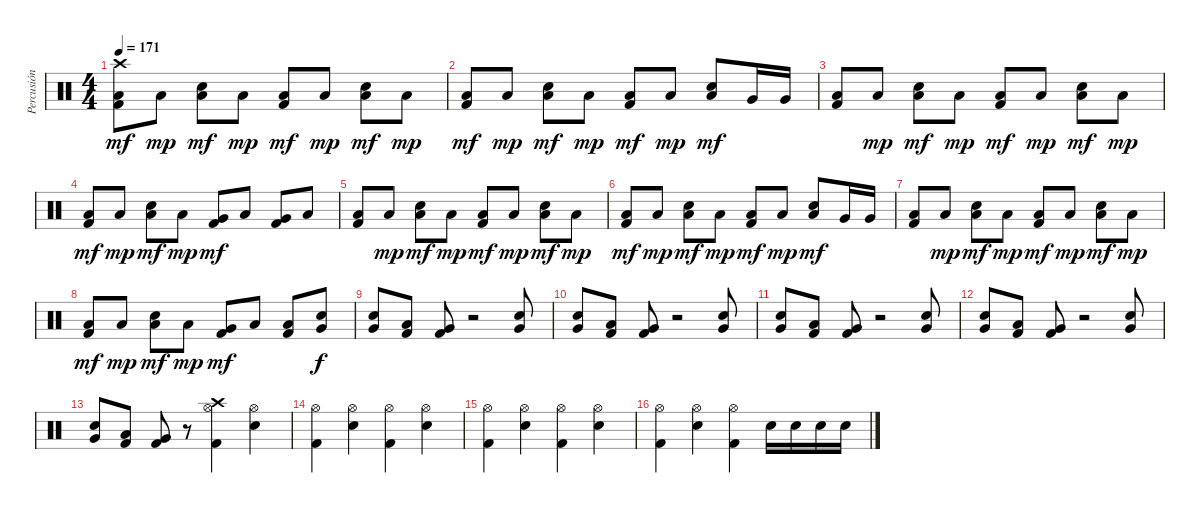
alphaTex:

\track ("Percusión" "Percusión") {instrument percussion}
\staff {score}
\articulation defaults
\ts (4 4)
\tempo 171
\clef neutral
\ks c
("Crash high (hit)" "Low Floor Tom (hit)" "Kick (hit) 2").8{dy mf} "Low Floor Tom (hit)".8{dy mp} ("Low Floor Tom (hit)" "Electric Snare (hit)").8{dy mf} "Low Floor Tom (hit)".8{dy mp} ("Low Floor Tom (hit)" "Kick (hit) 2").8{dy mf} "Low Floor Tom (hit)".8{dy mp} ("Low Floor Tom (hit)" "Electric Snare (hit)").8{dy mf} "Low Floor Tom (hit)".8{dy mp} |
("Low Floor Tom (hit)" "Kick (hit) 2").8{dy mf} "Low Floor Tom (hit)".8{dy mp} ("Low Floor Tom (hit)" "Electric Snare (hit)").8{dy mf} "Low Floor Tom (hit)".8{dy mp} ("Low Floor Tom (hit)" "Kick (hit) 2").8{dy mf} "Low Floor Tom (hit)".8{dy mp} ("Low Floor Tom (hit)" "Electric Snare (hit)").8{dy mf} "Very Low Tom (hit)".16 "Very Low Tom (hit)".16 |
("Low Floor Tom (hit)" "Kick (hit) 2").8 "Low Floor Tom (hit)".8{dy mp} ("Low Floor Tom (hit)" "Electric Snare (hit)").8{dy mf} "Low Floor Tom (hit)".8{dy mp} ("Low Floor Tom (hit)" "Kick (hit) 2").8{dy mf} "Low Floor Tom (hit)".8{dy mp} ("Low Floor Tom (hit)" "Electric Snare (hit)").8{dy mf} "Low Floor Tom (hit)".8{dy mp} |
("Low Floor Tom (hit)" "Kick (hit) 2").8{dy mf} "Low Floor Tom (hit)".8{dy mp} ("Low Floor Tom (hit)" "Electric Snare (hit)").8{dy mf} "Low Floor Tom (hit)".8{dy mp} ("Very Low Tom (hit)" "Kick (hit) 2").8{dy mf} "Low Tom (hit)".8 ("Very Low Tom (hit)" "Kick (hit) 2").8 "Low Tom (hit)".8 |
("Low Floor Tom (hit)" "Kick (hit) 2").8 "Low Floor Tom (hit)".8{dy mp} ("Low Floor Tom (hit)" "Electric Snare (hit)").8{dy mf} "Low Floor Tom (hit)".8{dy mp} ("Low Floor Tom (hit)" "Kick (hit) 2").8{dy mf} "Low Floor Tom (hit)".8{dy mp} ("Low Floor Tom (hit)" "Electric Snare (hit)").8{dy mf} "Low Floor Tom (hit)".8{dy mp} |
("Low Floor Tom (hit)" "Kick (hit) 2").8{dy mf} "Low Floor Tom (hit)".8{dy mp} ("Low Floor Tom (hit)" "Electric Snare (hit)").8{dy mf} "Low Floor Tom (hit)".8{dy mp} ("Low Floor Tom (hit)" "Kick (hit) 2").8{dy mf} "Low Floor Tom (hit)".8{dy mp} ("Low Floor Tom (hit)" "Electric Snare (hit)").8{dy mf} "Very Low Tom (hit)".16 "Very Low Tom (hit)".16 |
("Low Floor Tom (hit)" "Kick (hit) 2").8 "Low Floor Tom (hit)".8{dy mp} ("Low Floor Tom (hit)" "Electric Snare (hit)").8{dy mf} "Low Floor Tom (hit)".8{dy mp} ("Low Floor Tom (hit)" "Kick (hit) 2").8{dy mf} "Low Floor Tom (hit)".8{dy mp} ("Low Floor Tom (hit)" "Electric Snare (hit)").8{dy mf} "Low Floor Tom (hit)".8{dy mp} |
("Low Floor Tom (hit)" "Kick (hit) 2").8{dy mf} "Low Floor Tom (hit)".8{dy mp} ("Low Floor Tom (hit)" "Electric Snare (hit)").8{dy mf} "Low Floor Tom (hit)".8{dy mp} ("Very Low Tom (hit)" "Kick (hit) 2").8{dy mf} "Low Tom (hit)".8 ("Low Floor Tom (hit)" "Kick (hit) 2").8 ("Very Low Tom (hit)" "Electric Snare (hit)").8{dy f} |
("Very Low Tom (hit)" "Electric Snare (hit)").8 ("Low Tom (hit)" "Kick (hit) 2").8 ("Very Low Tom (hit)" "Kick (hit) 2").8 r.2 ("Very Low Tom (hit)" "Electric Snare (hit)").8 |
("Very Low Tom (hit)" "Electric Snare (hit)").8 ("Low Tom (hit)" "Kick (hit) 2").8 ("Very Low Tom (hit)" "Kick (hit) 2").8 r.2 ("Very Low Tom (hit)" "Electric Snare (hit)").8 |
("Very Low Tom (hit)" "Electric Snare (hit)").8 ("Low Tom (hit)" "Kick (hit) 2").8 ("Very Low Tom (hit)" "Kick (hit) 2").8 r.2 ("Very Low Tom (hit)" "Electric Snare (hit)").8 |
("Very Low Tom (hit)" "Electric Snare (hit)").8 ("Low Tom (hit)" "Kick (hit) 2").8 ("Very Low Tom (hit)" "Kick (hit) 2").8 r.2 ("Very Low Tom (hit)" "Electric Snare (hit)").8 |
("Very Low Tom (hit)" "Electric Snare (hit)").8 ("Low Tom (hit)" "Kick (hit) 2").8 ("Very Low Tom (hit)" "Kick (hit) 2").8 r.8 ("Crash high (hit)" "Hi-Hat (open)" "Kick (hit) 2").4 ("Hi-Hat (open)" "Electric Snare (hit)").4 |
("Hi-Hat (open)" "Kick (hit) 2").4 ("Hi-Hat (open)" "Electric Snare (hit)").4 ("Hi-Hat (open)" "Kick (hit) 2").4 ("Hi-Hat (open)" "Electric Snare (hit)").4 |
("Hi-Hat (open)" "Kick (hit) 2").4 ("Hi-Hat (open)" "Electric Snare (hit)").4 ("Hi-Hat (open)" "Kick (hit) 2").4 ("Hi-Hat (open)" "Electric Snare (hit)").4 |
("Hi-Hat (open)" "Kick (hit) 2").4 ("Hi-Hat (open)" "Electric Snare (hit)").4 ("Hi-Hat (open)" "Kick (hit) 2").4 "Electric Snare (hit)".16 "Electric Snare (hit)".16 "Electric Snare (hit)".16 "Electric Snare (hit)".16
